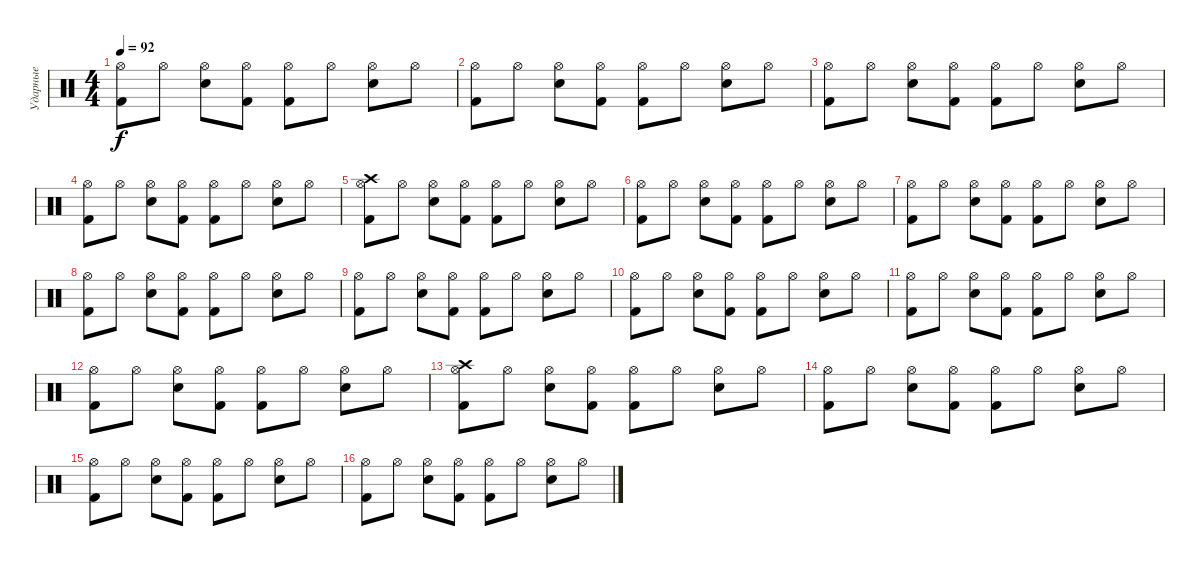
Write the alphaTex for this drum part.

\track ("Ударные" "Ударные") {instrument percussion}
\staff {score}
\articulation defaults
\ts (4 4)
\tempo 92
\clef neutral
\ks c
("Kick (hit) 2" "Hi-Hat (open)").8{dy f} "Hi-Hat (open)".8 ("Electric Snare (hit)" "Hi-Hat (open)").8 ("Kick (hit) 2" "Hi-Hat (open)").8 ("Kick (hit) 2" "Hi-Hat (open)").8 "Hi-Hat (open)".8 ("Electric Snare (hit)" "Hi-Hat (open)").8 "Hi-Hat (open)".8 |
("Kick (hit) 2" "Hi-Hat (open)").8 "Hi-Hat (open)".8 ("Electric Snare (hit)" "Hi-Hat (open)").8 ("Kick (hit) 2" "Hi-Hat (open)").8 ("Kick (hit) 2" "Hi-Hat (open)").8 "Hi-Hat (open)".8 ("Electric Snare (hit)" "Hi-Hat (open)").8 "Hi-Hat (open)".8 |
("Kick (hit) 2" "Hi-Hat (open)").8 "Hi-Hat (open)".8 ("Electric Snare (hit)" "Hi-Hat (open)").8 ("Kick (hit) 2" "Hi-Hat (open)").8 ("Kick (hit) 2" "Hi-Hat (open)").8 "Hi-Hat (open)".8 ("Electric Snare (hit)" "Hi-Hat (open)").8 "Hi-Hat (open)".8 |
("Kick (hit) 2" "Hi-Hat (open)").8 "Hi-Hat (open)".8 ("Electric Snare (hit)" "Hi-Hat (open)").8 ("Kick (hit) 2" "Hi-Hat (open)").8 ("Kick (hit) 2" "Hi-Hat (open)").8 "Hi-Hat (open)".8 ("Electric Snare (hit)" "Hi-Hat (open)").8 "Hi-Hat (open)".8 |
("Kick (hit) 2" "Hi-Hat (open)" "Crash high (hit)").8 "Hi-Hat (open)".8 ("Electric Snare (hit)" "Hi-Hat (open)").8 ("Kick (hit) 2" "Hi-Hat (open)").8 ("Kick (hit) 2" "Hi-Hat (open)").8 "Hi-Hat (open)".8 ("Electric Snare (hit)" "Hi-Hat (open)").8 "Hi-Hat (open)".8 |
("Kick (hit) 2" "Hi-Hat (open)").8 "Hi-Hat (open)".8 ("Electric Snare (hit)" "Hi-Hat (open)").8 ("Kick (hit) 2" "Hi-Hat (open)").8 ("Kick (hit) 2" "Hi-Hat (open)").8 "Hi-Hat (open)".8 ("Electric Snare (hit)" "Hi-Hat (open)").8 "Hi-Hat (open)".8 |
("Kick (hit) 2" "Hi-Hat (open)").8 "Hi-Hat (open)".8 ("Electric Snare (hit)" "Hi-Hat (open)").8 ("Kick (hit) 2" "Hi-Hat (open)").8 ("Kick (hit) 2" "Hi-Hat (open)").8 "Hi-Hat (open)".8 ("Electric Snare (hit)" "Hi-Hat (open)").8 "Hi-Hat (open)".8 |
("Kick (hit) 2" "Hi-Hat (open)").8 "Hi-Hat (open)".8 ("Electric Snare (hit)" "Hi-Hat (open)").8 ("Kick (hit) 2" "Hi-Hat (open)").8 ("Kick (hit) 2" "Hi-Hat (open)").8 "Hi-Hat (open)".8 ("Electric Snare (hit)" "Hi-Hat (open)").8 "Hi-Hat (open)".8 |
("Kick (hit) 2" "Hi-Hat (open)").8 "Hi-Hat (open)".8 ("Electric Snare (hit)" "Hi-Hat (open)").8 ("Kick (hit) 2" "Hi-Hat (open)").8 ("Kick (hit) 2" "Hi-Hat (open)").8 "Hi-Hat (open)".8 ("Electric Snare (hit)" "Hi-Hat (open)").8 "Hi-Hat (open)".8 |
("Kick (hit) 2" "Hi-Hat (open)").8 "Hi-Hat (open)".8 ("Electric Snare (hit)" "Hi-Hat (open)").8 ("Kick (hit) 2" "Hi-Hat (open)").8 ("Kick (hit) 2" "Hi-Hat (open)").8 "Hi-Hat (open)".8 ("Electric Snare (hit)" "Hi-Hat (open)").8 "Hi-Hat (open)".8 |
("Kick (hit) 2" "Hi-Hat (open)").8 "Hi-Hat (open)".8 ("Electric Snare (hit)" "Hi-Hat (open)").8 ("Kick (hit) 2" "Hi-Hat (open)").8 ("Kick (hit) 2" "Hi-Hat (open)").8 "Hi-Hat (open)".8 ("Electric Snare (hit)" "Hi-Hat (open)").8 "Hi-Hat (open)".8 |
("Kick (hit) 2" "Hi-Hat (open)").8 "Hi-Hat (open)".8 ("Electric Snare (hit)" "Hi-Hat (open)").8 ("Kick (hit) 2" "Hi-Hat (open)").8 ("Kick (hit) 2" "Hi-Hat (open)").8 "Hi-Hat (open)".8 ("Electric Snare (hit)" "Hi-Hat (open)").8 "Hi-Hat (open)".8 |
("Kick (hit) 2" "Hi-Hat (open)" "Crash high (hit)").8 "Hi-Hat (open)".8 ("Electric Snare (hit)" "Hi-Hat (open)").8 ("Kick (hit) 2" "Hi-Hat (open)").8 ("Kick (hit) 2" "Hi-Hat (open)").8 "Hi-Hat (open)".8 ("Electric Snare (hit)" "Hi-Hat (open)").8 "Hi-Hat (open)".8 |
("Kick (hit) 2" "Hi-Hat (open)").8 "Hi-Hat (open)".8 ("Electric Snare (hit)" "Hi-Hat (open)").8 ("Kick (hit) 2" "Hi-Hat (open)").8 ("Kick (hit) 2" "Hi-Hat (open)").8 "Hi-Hat (open)".8 ("Electric Snare (hit)" "Hi-Hat (open)").8 "Hi-Hat (open)".8 |
("Kick (hit) 2" "Hi-Hat (open)").8 "Hi-Hat (open)".8 ("Electric Snare (hit)" "Hi-Hat (open)").8 ("Kick (hit) 2" "Hi-Hat (open)").8 ("Kick (hit) 2" "Hi-Hat (open)").8 "Hi-Hat (open)".8 ("Electric Snare (hit)" "Hi-Hat (open)").8 "Hi-Hat (open)".8 |
("Kick (hit) 2" "Hi-Hat (open)").8 "Hi-Hat (open)".8 ("Electric Snare (hit)" "Hi-Hat (open)").8 ("Kick (hit) 2" "Hi-Hat (open)").8 ("Kick (hit) 2" "Hi-Hat (open)").8 "Hi-Hat (open)".8 ("Electric Snare (hit)" "Hi-Hat (open)").8 "Hi-Hat (open)".8
